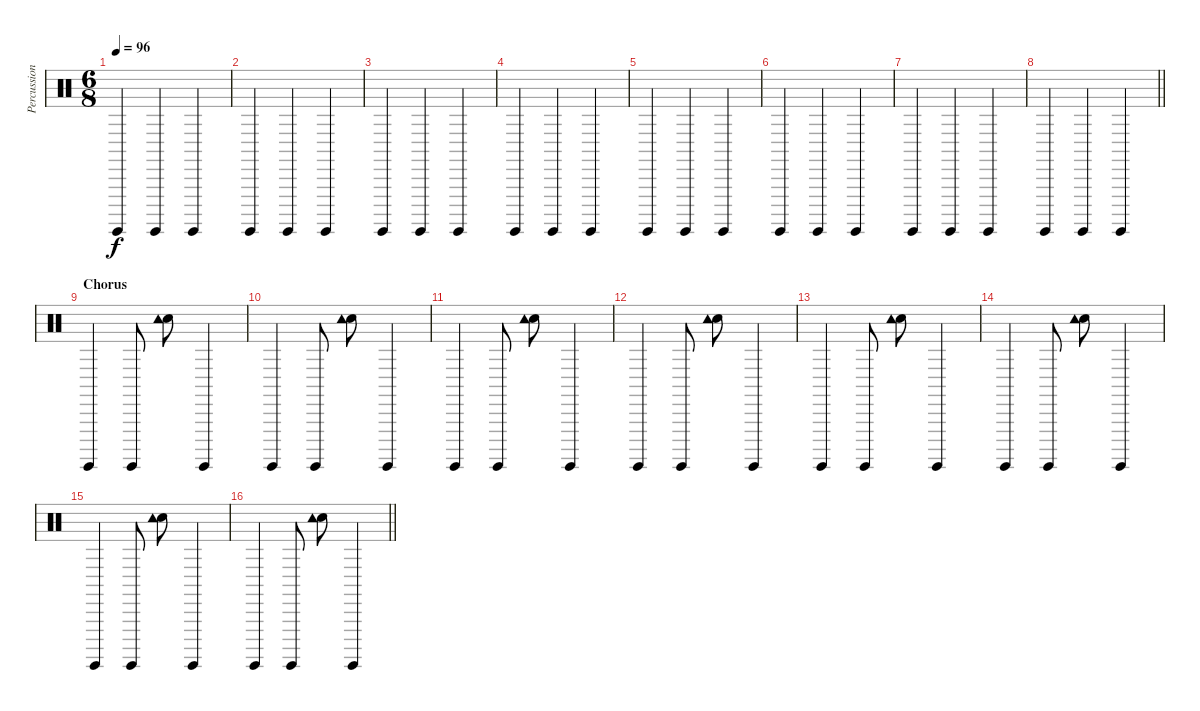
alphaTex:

\track ("Percussion" "Percussion") {instrument percussion}
\staff {score}
\articulation defaults
\ts (6 8)
\tempo 96
\clef neutral
\ks c "Surdo (hit)".4{dy f} "Surdo (hit)".4 "Surdo (hit)".4
|
"Surdo (hit)".4 "Surdo (hit)".4 "Surdo (hit)".4 |
"Surdo (hit)".4 "Surdo (hit)".4 "Surdo (hit)".4 |
"Surdo (hit)".4 "Surdo (hit)".4 "Surdo (hit)".4 |
"Surdo (hit)".4 "Surdo (hit)".4 "Surdo (hit)".4 |
"Surdo (hit)".4 "Surdo (hit)".4 "Surdo (hit)".4 |
"Surdo (hit)".4 "Surdo (hit)".4 "Surdo (hit)".4 |
\barLineRight lightlight "Surdo (hit)".4 "Surdo (hit)".4 "Surdo (hit)".4
|
\section ("" "Chorus")
"Surdo (hit)".4 "Surdo (hit)".8 ("Snare (hit) 2" "Tambourine (hit)").8 "Surdo (hit)".4 |
"Surdo (hit)".4 "Surdo (hit)".8 ("Snare (hit) 2" "Tambourine (hit)").8 "Surdo (hit)".4 |
"Surdo (hit)".4 "Surdo (hit)".8 ("Snare (hit) 2" "Tambourine (hit)").8 "Surdo (hit)".4 |
"Surdo (hit)".4 "Surdo (hit)".8 ("Snare (hit) 2" "Tambourine (hit)").8 "Surdo (hit)".4 |
"Surdo (hit)".4 "Surdo (hit)".8 ("Snare (hit) 2" "Tambourine (hit)").8 "Surdo (hit)".4 |
"Surdo (hit)".4 "Surdo (hit)".8 ("Snare (hit) 2" "Tambourine (hit)").8 "Surdo (hit)".4 |
"Surdo (hit)".4 "Surdo (hit)".8 ("Snare (hit) 2" "Tambourine (hit)").8 "Surdo (hit)".4 |
\barLineRight lightlight "Surdo (hit)".4 "Surdo (hit)".8
("Snare (hit) 2" "Tambourine (hit)").8 "Surdo (hit)".4
